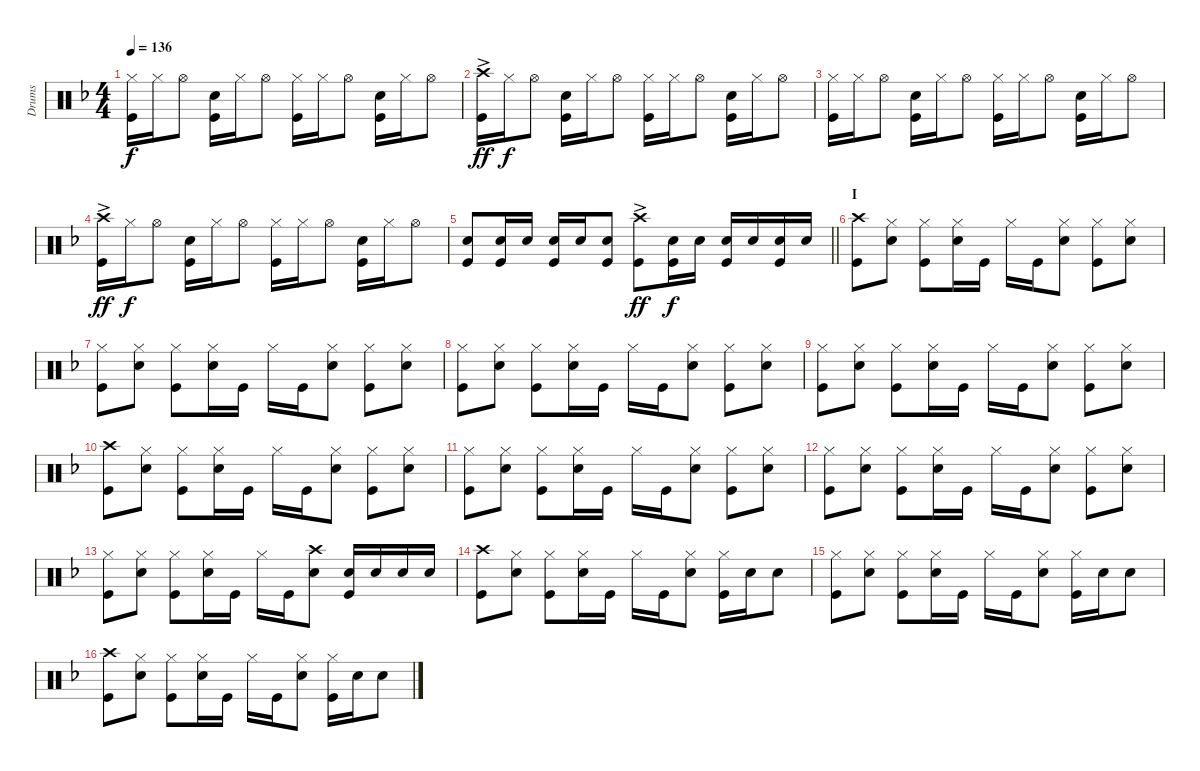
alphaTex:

\track ("Drums" "Drums") {instrument percussion}
\staff {score}
\articulation defaults
\ts (4 4)
\tempo 136
\clef neutral
\ks dminor
("Kick (hit)" "Hi-Hat (closed)").16{dy f} "Hi-Hat (closed)".16 "Hi-Hat (open)".8 ("Kick (hit)" "Snare (hit) 2").16 "Hi-Hat (closed)".16 "Hi-Hat (open)".8 ("Kick (hit)" "Hi-Hat (closed)").16 "Hi-Hat (closed)".16 "Hi-Hat (open)".8 ("Kick (hit)" "Snare (hit) 2").16 "Hi-Hat (closed)".16 "Hi-Hat (open)".8 |
("Crash high (hit)" "Kick (hit)"{ac}).16{dy ff} "Hi-Hat (closed)".16{dy f} "Hi-Hat (open)".8 ("Kick (hit)" "Snare (hit) 2").16 "Hi-Hat (closed)".16 "Hi-Hat (open)".8 ("Kick (hit)" "Hi-Hat (closed)").16 "Hi-Hat (closed)".16 "Hi-Hat (open)".8 ("Kick (hit)" "Snare (hit) 2").16 "Hi-Hat (closed)".16 "Hi-Hat (open)".8 |
("Kick (hit)" "Hi-Hat (closed)").16 "Hi-Hat (closed)".16 "Hi-Hat (open)".8 ("Kick (hit)" "Snare (hit) 2").16 "Hi-Hat (closed)".16 "Hi-Hat (open)".8 ("Kick (hit)" "Hi-Hat (closed)").16 "Hi-Hat (closed)".16 "Hi-Hat (open)".8 ("Kick (hit)" "Snare (hit) 2").16 "Hi-Hat (closed)".16 "Hi-Hat (open)".8 |
("Crash high (hit)" "Kick (hit)"{ac}).16{dy ff} "Hi-Hat (closed)".16{dy f} "Hi-Hat (open)".8 ("Kick (hit)" "Snare (hit) 2").16 "Hi-Hat (closed)".16 "Hi-Hat (open)".8 ("Kick (hit)" "Hi-Hat (closed)").16 "Hi-Hat (closed)".16 "Hi-Hat (open)".8 ("Kick (hit)" "Snare (hit) 2").16 "Hi-Hat (closed)".16 "Hi-Hat (open)".8 |
\barLineRight lightlight
("Kick (hit)" "Snare (hit) 2").8 ("Kick (hit)" "Snare (hit) 2").16 "Snare (hit) 2".16 ("Snare (hit) 2" "Kick (hit)").16 "Snare (hit) 2".16 ("Snare (hit) 2" "Kick (hit)").8 ("Kick (hit)" "Crash high (hit)"{ac}).8{dy ff} ("Kick (hit)" "Snare (hit) 2").16{dy f} "Snare (hit) 2".16 ("Snare (hit) 2" "Kick (hit)").16 "Snare (hit) 2".16 ("Snare (hit) 2" "Kick (hit)").16 "Snare (hit) 2".16 |
\section ("" "I")
("Crash high (hit)" "Kick (hit)").8 ("Hi-Hat (closed)" "Snare (hit) 2").8 ("Kick (hit)" "Hi-Hat (closed)").8 ("Hi-Hat (closed)" "Snare (hit) 2").16 "Kick (hit)".16 "Hi-Hat (closed)".16 "Kick (hit)".16 ("Hi-Hat (closed)" "Snare (hit) 2").8 ("Kick (hit)" "Hi-Hat (closed)").8 ("Snare (hit) 2" "Hi-Hat (closed)").8 |
("Hi-Hat (closed)" "Kick (hit)").8 ("Hi-Hat (closed)" "Snare (hit) 2").8 ("Kick (hit)" "Hi-Hat (closed)").8 ("Hi-Hat (closed)" "Snare (hit) 2").16 "Kick (hit)".16 "Hi-Hat (closed)".16 "Kick (hit)".16 ("Hi-Hat (closed)" "Snare (hit) 2").8 ("Kick (hit)" "Hi-Hat (closed)").8 ("Snare (hit) 2" "Hi-Hat (closed)").8 |
("Hi-Hat (closed)" "Kick (hit)").8 ("Hi-Hat (closed)" "Snare (hit) 2").8 ("Kick (hit)" "Hi-Hat (closed)").8 ("Hi-Hat (closed)" "Snare (hit) 2").16 "Kick (hit)".16 "Hi-Hat (closed)".16 "Kick (hit)".16 ("Hi-Hat (closed)" "Snare (hit) 2").8 ("Kick (hit)" "Hi-Hat (closed)").8 ("Snare (hit) 2" "Hi-Hat (closed)").8 |
("Hi-Hat (closed)" "Kick (hit)").8 ("Hi-Hat (closed)" "Snare (hit) 2").8 ("Kick (hit)" "Hi-Hat (closed)").8 ("Hi-Hat (closed)" "Snare (hit) 2").16 "Kick (hit)".16 "Hi-Hat (closed)".16 "Kick (hit)".16 ("Hi-Hat (closed)" "Snare (hit) 2").8 ("Kick (hit)" "Hi-Hat (closed)").8 ("Snare (hit) 2" "Hi-Hat (closed)").8 |
("Crash high (hit)" "Kick (hit)").8 ("Hi-Hat (closed)" "Snare (hit) 2").8 ("Kick (hit)" "Hi-Hat (closed)").8 ("Hi-Hat (closed)" "Snare (hit) 2").16 "Kick (hit)".16 "Hi-Hat (closed)".16 "Kick (hit)".16 ("Hi-Hat (closed)" "Snare (hit) 2").8 ("Kick (hit)" "Hi-Hat (closed)").8 ("Snare (hit) 2" "Hi-Hat (closed)").8 |
("Hi-Hat (closed)" "Kick (hit)").8 ("Hi-Hat (closed)" "Snare (hit) 2").8 ("Kick (hit)" "Hi-Hat (closed)").8 ("Hi-Hat (closed)" "Snare (hit) 2").16 "Kick (hit)".16 "Hi-Hat (closed)".16 "Kick (hit)".16 ("Hi-Hat (closed)" "Snare (hit) 2").8 ("Kick (hit)" "Hi-Hat (closed)").8 ("Snare (hit) 2" "Hi-Hat (closed)").8 |
("Hi-Hat (closed)" "Kick (hit)").8 ("Hi-Hat (closed)" "Snare (hit) 2").8 ("Kick (hit)" "Hi-Hat (closed)").8 ("Hi-Hat (closed)" "Snare (hit) 2").16 "Kick (hit)".16 "Hi-Hat (closed)".16 "Kick (hit)".16 ("Hi-Hat (closed)" "Snare (hit) 2").8 ("Kick (hit)" "Hi-Hat (closed)").8 ("Snare (hit) 2" "Hi-Hat (closed)").8 |
("Hi-Hat (closed)" "Kick (hit)").8 ("Hi-Hat (closed)" "Snare (hit) 2").8 ("Kick (hit)" "Hi-Hat (closed)").8 ("Hi-Hat (closed)" "Snare (hit) 2").16 "Kick (hit)".16 "Hi-Hat (closed)".16 "Kick (hit)".16 ("Crash high (hit)" "Snare (hit) 2").8 ("Kick (hit)" "Snare (hit) 2").16 "Snare (hit) 2".16 "Snare (hit) 2".16 "Snare (hit) 2".16 |
("Crash high (hit)" "Kick (hit)").8 ("Hi-Hat (closed)" "Snare (hit) 2").8 ("Kick (hit)" "Hi-Hat (closed)").8 ("Hi-Hat (closed)" "Snare (hit) 2").16 "Kick (hit)".16 "Hi-Hat (closed)".16 "Kick (hit)".16 ("Hi-Hat (closed)" "Snare (hit) 2").8 ("Hi-Hat (closed)" "Kick (hit)").16 "Snare (hit) 2".16 "Snare (hit) 2".8 |
("Hi-Hat (closed)" "Kick (hit)").8 ("Hi-Hat (closed)" "Snare (hit) 2").8 ("Kick (hit)" "Hi-Hat (closed)").8 ("Hi-Hat (closed)" "Snare (hit) 2").16 "Kick (hit)".16 "Hi-Hat (closed)".16 "Kick (hit)".16 ("Hi-Hat (closed)" "Snare (hit) 2").8 ("Hi-Hat (closed)" "Kick (hit)").16 "Snare (hit) 2".16 "Snare (hit) 2".8 |
("Crash high (hit)" "Kick (hit)").8 ("Hi-Hat (closed)" "Snare (hit) 2").8 ("Kick (hit)" "Hi-Hat (closed)").8 ("Hi-Hat (closed)" "Snare (hit) 2").16 "Kick (hit)".16 "Hi-Hat (closed)".16 "Kick (hit)".16 ("Hi-Hat (closed)" "Snare (hit) 2").8 ("Hi-Hat (closed)" "Kick (hit)").16 "Snare (hit) 2".16 "Snare (hit) 2".8
